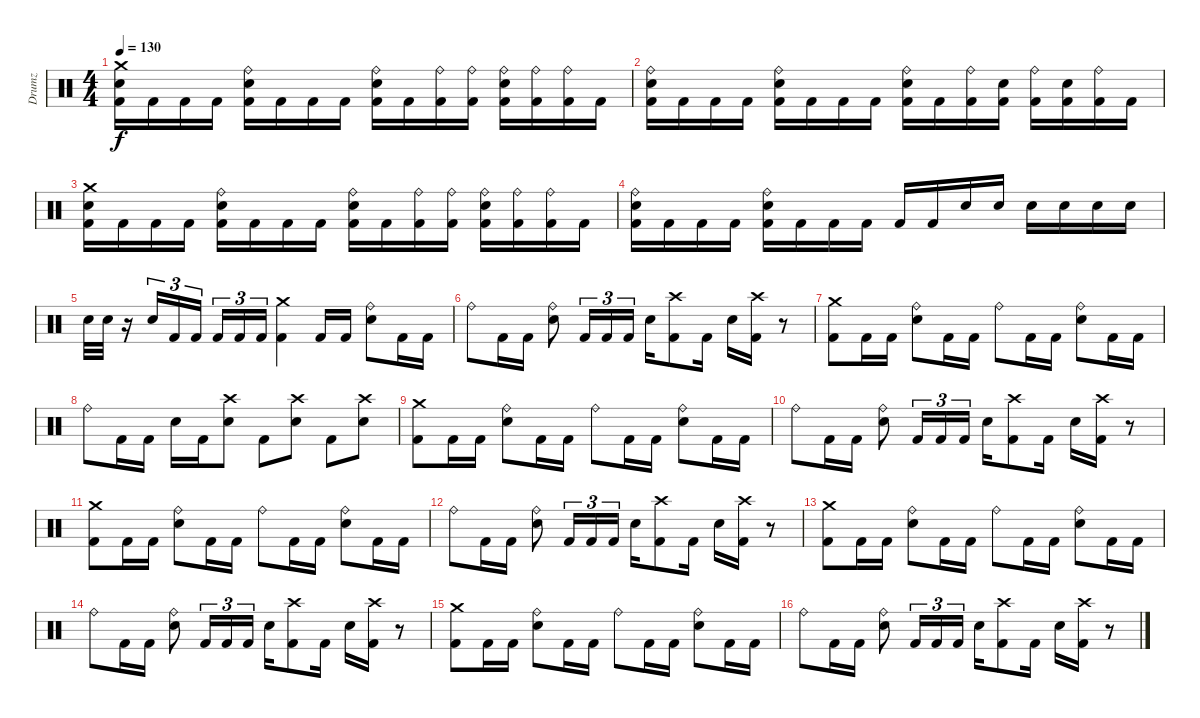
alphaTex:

\track ("Drumz" "Drumz") {instrument percussion}
\staff {score}
\articulation defaults
\ts (4 4)
\tempo 130
\clef neutral
\ks c
("Kick (hit) 2" "Snare (hit) 2" "Crash medium (hit)").16{dy f} "Kick (hit) 2".16 "Kick (hit) 2".16 "Kick (hit) 2".16 ("Kick (hit) 2" "Snare (hit) 2" "Ride (bell)").16 "Kick (hit) 2".16 "Kick (hit) 2".16 "Kick (hit) 2".16 ("Kick (hit) 2" "Snare (hit) 2" "Ride (bell)").16 "Kick (hit) 2".16 ("Kick (hit) 2" "Ride (bell)").16 ("Kick (hit) 2" "Ride (bell)").16 ("Kick (hit) 2" "Snare (hit) 2" "Ride (bell)").16 ("Kick (hit) 2" "Ride (bell)").16 ("Kick (hit) 2" "Ride (bell)").16 "Kick (hit) 2".16 |
("Kick (hit) 2" "Snare (hit) 2" "Ride (bell)").16 "Kick (hit) 2".16 "Kick (hit) 2".16 "Kick (hit) 2".16 ("Kick (hit) 2" "Snare (hit) 2" "Ride (bell)").16 "Kick (hit) 2".16 "Kick (hit) 2".16 "Kick (hit) 2".16 ("Kick (hit) 2" "Snare (hit) 2" "Ride (bell)").16 "Kick (hit) 2".16 ("Kick (hit) 2" "Ride (bell)").16 ("Kick (hit) 2" "Snare (hit) 2").16 ("Kick (hit) 2" "Ride (bell)").16 ("Kick (hit) 2" "Snare (hit) 2").16 ("Kick (hit) 2" "Ride (bell)").16 "Kick (hit) 2".16 |
("Kick (hit) 2" "Snare (hit) 2" "Crash medium (hit)").16 "Kick (hit) 2".16 "Kick (hit) 2".16 "Kick (hit) 2".16 ("Kick (hit) 2" "Snare (hit) 2" "Ride (bell)").16 "Kick (hit) 2".16 "Kick (hit) 2".16 "Kick (hit) 2".16 ("Kick (hit) 2" "Snare (hit) 2" "Ride (bell)").16 "Kick (hit) 2".16 ("Kick (hit) 2" "Ride (bell)").16 ("Kick (hit) 2" "Ride (bell)").16 ("Kick (hit) 2" "Snare (hit) 2" "Ride (bell)").16 ("Kick (hit) 2" "Ride (bell)").16 ("Kick (hit) 2" "Ride (bell)").16 "Kick (hit) 2".16 |
("Kick (hit) 2" "Snare (hit) 2" "Ride (bell)").16 "Kick (hit) 2".16 "Kick (hit) 2".16 "Kick (hit) 2".16 ("Kick (hit) 2" "Snare (hit) 2" "Ride (bell)").16 "Kick (hit) 2".16 "Kick (hit) 2".16 "Kick (hit) 2".16 "Kick (hit) 2".16 "Kick (hit) 2".16 "Snare (hit) 2".16 "Snare (hit) 2".16 "Snare (hit) 2".16 "Snare (hit) 2".16 "Snare (hit) 2".16 "Snare (hit) 2".16 |
"Snare (hit) 2".32 "Snare (hit) 2".32 r.16 "Snare (hit) 2".16{tu (3 2)} "Kick (hit) 2".16{tu (3 2)} "Kick (hit) 2".16{tu (3 2)} "Kick (hit) 2".16{tu (3 2)} "Kick (hit) 2".16{tu (3 2)} "Kick (hit) 2".16{tu (3 2)} ("Kick (hit) 2" "Crash medium (hit)").4 "Kick (hit) 2".16 "Kick (hit) 2".16 ("Snare (hit) 2" "Ride (bell)").8 "Kick (hit) 2".16 "Kick (hit) 2".16 |
"Ride (bell)".8 "Kick (hit) 2".16 "Kick (hit) 2".16 ("Snare (hit) 2" "Ride (bell)").8 "Kick (hit) 2".16{tu (3 2)} "Kick (hit) 2".16{tu (3 2)} "Kick (hit) 2".16{tu (3 2)} "Snare (hit) 2".16 ("Kick (hit) 2" "Crash high (hit)").8 "Kick (hit) 2".16 "Snare (hit) 2".16 ("Kick (hit) 2" "Crash high (hit)").16 r.8 |
("Kick (hit) 2" "Crash medium (hit)").8 "Kick (hit) 2".16 "Kick (hit) 2".16 ("Snare (hit) 2" "Ride (bell)").8 "Kick (hit) 2".16 "Kick (hit) 2".16 "Ride (bell)".8 "Kick (hit) 2".16 "Kick (hit) 2".16 ("Snare (hit) 2" "Ride (bell)").8 "Kick (hit) 2".16 "Kick (hit) 2".16 |
"Ride (bell)".8 "Kick (hit) 2".16 "Kick (hit) 2".16 "Snare (hit) 2".16 "Kick (hit) 2".16 ("Snare (hit) 2" "Crash high (hit)").8 "Kick (hit) 2".8 ("Snare (hit) 2" "Crash high (hit)").8 "Kick (hit) 2".8 ("Snare (hit) 2" "Crash high (hit)").8 |
("Kick (hit) 2" "Crash medium (hit)").8 "Kick (hit) 2".16 "Kick (hit) 2".16 ("Snare (hit) 2" "Ride (bell)").8 "Kick (hit) 2".16 "Kick (hit) 2".16 "Ride (bell)".8 "Kick (hit) 2".16 "Kick (hit) 2".16 ("Snare (hit) 2" "Ride (bell)").8 "Kick (hit) 2".16 "Kick (hit) 2".16 |
"Ride (bell)".8 "Kick (hit) 2".16 "Kick (hit) 2".16 ("Snare (hit) 2" "Ride (bell)").8 "Kick (hit) 2".16{tu (3 2)} "Kick (hit) 2".16{tu (3 2)} "Kick (hit) 2".16{tu (3 2)} "Snare (hit) 2".16 ("Kick (hit) 2" "Crash high (hit)").8 "Kick (hit) 2".16 "Snare (hit) 2".16 ("Kick (hit) 2" "Crash high (hit)").16 r.8 |
("Kick (hit) 2" "Crash medium (hit)").8 "Kick (hit) 2".16 "Kick (hit) 2".16 ("Snare (hit) 2" "Ride (bell)").8 "Kick (hit) 2".16 "Kick (hit) 2".16 "Ride (bell)".8 "Kick (hit) 2".16 "Kick (hit) 2".16 ("Snare (hit) 2" "Ride (bell)").8 "Kick (hit) 2".16 "Kick (hit) 2".16 |
"Ride (bell)".8 "Kick (hit) 2".16 "Kick (hit) 2".16 ("Snare (hit) 2" "Ride (bell)").8 "Kick (hit) 2".16{tu (3 2)} "Kick (hit) 2".16{tu (3 2)} "Kick (hit) 2".16{tu (3 2)} "Snare (hit) 2".16 ("Kick (hit) 2" "Crash high (hit)").8 "Kick (hit) 2".16 "Snare (hit) 2".16 ("Kick (hit) 2" "Crash high (hit)").16 r.8 |
("Kick (hit) 2" "Crash medium (hit)").8 "Kick (hit) 2".16 "Kick (hit) 2".16 ("Snare (hit) 2" "Ride (bell)").8 "Kick (hit) 2".16 "Kick (hit) 2".16 "Ride (bell)".8 "Kick (hit) 2".16 "Kick (hit) 2".16 ("Snare (hit) 2" "Ride (bell)").8 "Kick (hit) 2".16 "Kick (hit) 2".16 |
"Ride (bell)".8 "Kick (hit) 2".16 "Kick (hit) 2".16 ("Snare (hit) 2" "Ride (bell)").8 "Kick (hit) 2".16{tu (3 2)} "Kick (hit) 2".16{tu (3 2)} "Kick (hit) 2".16{tu (3 2)} "Snare (hit) 2".16 ("Kick (hit) 2" "Crash high (hit)").8 "Kick (hit) 2".16 "Snare (hit) 2".16 ("Kick (hit) 2" "Crash high (hit)").16 r.8 |
("Kick (hit) 2" "Crash medium (hit)").8 "Kick (hit) 2".16 "Kick (hit) 2".16 ("Snare (hit) 2" "Ride (bell)").8 "Kick (hit) 2".16 "Kick (hit) 2".16 "Ride (bell)".8 "Kick (hit) 2".16 "Kick (hit) 2".16 ("Snare (hit) 2" "Ride (bell)").8 "Kick (hit) 2".16 "Kick (hit) 2".16 |
"Ride (bell)".8 "Kick (hit) 2".16 "Kick (hit) 2".16 ("Snare (hit) 2" "Ride (bell)").8 "Kick (hit) 2".16{tu (3 2)} "Kick (hit) 2".16{tu (3 2)} "Kick (hit) 2".16{tu (3 2)} "Snare (hit) 2".16 ("Kick (hit) 2" "Crash high (hit)").8 "Kick (hit) 2".16 "Snare (hit) 2".16 ("Kick (hit) 2" "Crash high (hit)").16 r.8
